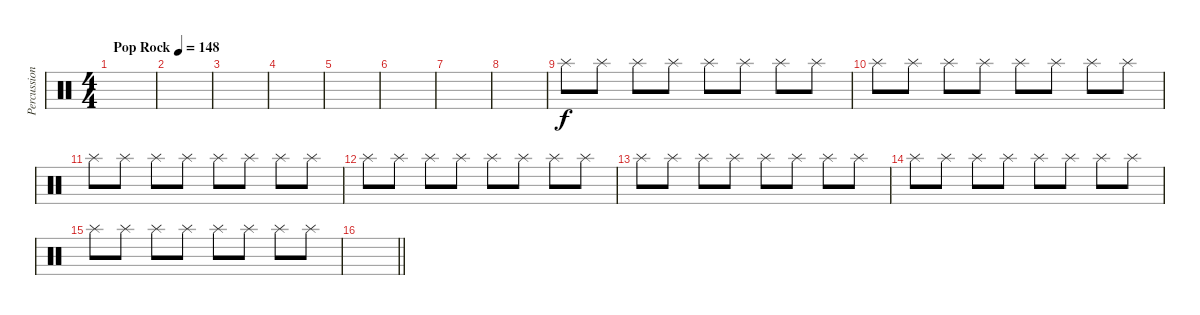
\track ("Percussion" "Percussion") {instrument percussion}
\staff {score}
\articulation defaults
\ts (4 4)
\tempo (148 "Pop Rock")
\clef neutral
\ks c
|
|
|
|
|
|
|
|
"Splash (hit)".8 "Splash (hit)".8 "Splash (hit)".8 "Splash (hit)".8 "Splash (hit)".8 "Splash (hit)".8 "Splash (hit)".8 "Splash (hit)".8 |
"Splash (hit)".8 "Splash (hit)".8 "Splash (hit)".8 "Splash (hit)".8 "Splash (hit)".8 "Splash (hit)".8 "Splash (hit)".8 "Splash (hit)".8 |
"Splash (hit)".8 "Splash (hit)".8 "Splash (hit)".8 "Splash (hit)".8 "Splash (hit)".8 "Splash (hit)".8 "Splash (hit)".8 "Splash (hit)".8 |
"Splash (hit)".8 "Splash (hit)".8 "Splash (hit)".8 "Splash (hit)".8 "Splash (hit)".8 "Splash (hit)".8 "Splash (hit)".8 "Splash (hit)".8 |
"Splash (hit)".8 "Splash (hit)".8 "Splash (hit)".8 "Splash (hit)".8 "Splash (hit)".8 "Splash (hit)".8 "Splash (hit)".8 "Splash (hit)".8 |
"Splash (hit)".8 "Splash (hit)".8 "Splash (hit)".8 "Splash (hit)".8 "Splash (hit)".8 "Splash (hit)".8 "Splash (hit)".8 "Splash (hit)".8 |
"Splash (hit)".8 "Splash (hit)".8 "Splash (hit)".8 "Splash (hit)".8 "Splash (hit)".8 "Splash (hit)".8 "Splash (hit)".8 "Splash (hit)".8 |
\barLineRight lightlight
